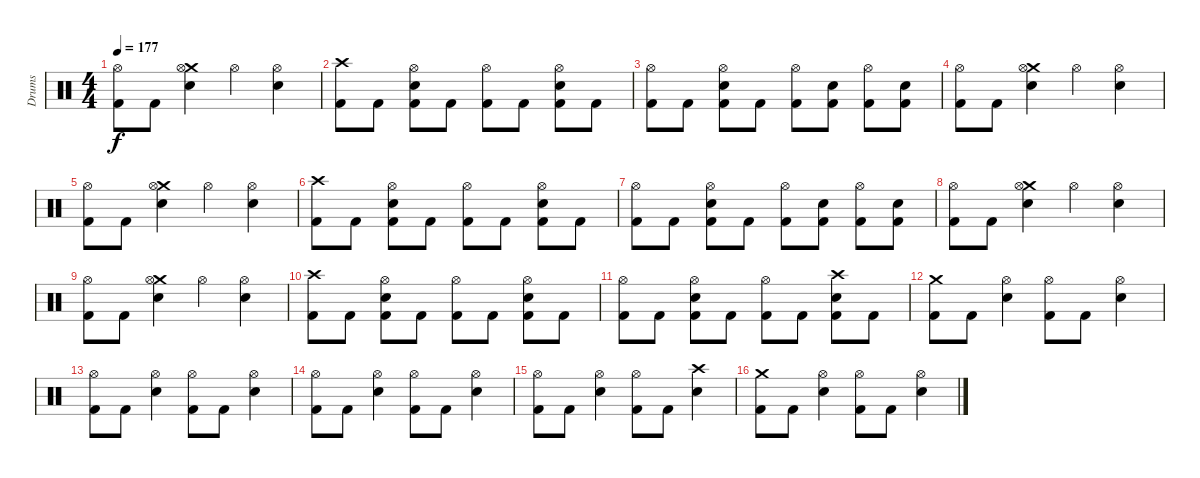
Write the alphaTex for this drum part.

\track ("Drums" "Drums") {instrument percussion}
\staff {score}
\articulation defaults
\ts (4 4)
\tempo 177
\clef neutral
\ks c
("Hi-Hat (open)" "Kick (hit) 2").8{dy f} "Kick (hit) 2".8 ("Crash medium (hit)" "Hi-Hat (open)" "Snare (hit) 2").4 "Hi-Hat (open)".4 ("Hi-Hat (open)" "Snare (hit) 2").4 |
("Crash high (hit)" "Kick (hit) 2").8 "Kick (hit) 2".8 ("Hi-Hat (open)" "Snare (hit) 2" "Kick (hit) 2").8 "Kick (hit) 2".8 ("Hi-Hat (open)" "Kick (hit) 2").8 "Kick (hit) 2".8 ("Hi-Hat (open)" "Snare (hit) 2" "Kick (hit) 2").8 "Kick (hit) 2".8 |
("Hi-Hat (open)" "Kick (hit) 2").8 "Kick (hit) 2".8 ("Hi-Hat (open)" "Snare (hit) 2" "Kick (hit) 2").8 "Kick (hit) 2".8 ("Hi-Hat (open)" "Kick (hit) 2").8 ("Snare (hit) 2" "Kick (hit) 2").8 ("Hi-Hat (open)" "Kick (hit) 2").8 ("Snare (hit) 2" "Kick (hit) 2").8 |
("Hi-Hat (open)" "Kick (hit) 2").8 "Kick (hit) 2".8 ("Crash medium (hit)" "Hi-Hat (open)" "Snare (hit) 2").4 "Hi-Hat (open)".4 ("Hi-Hat (open)" "Snare (hit) 2").4 |
("Hi-Hat (open)" "Kick (hit) 2").8 "Kick (hit) 2".8 ("Crash medium (hit)" "Hi-Hat (open)" "Snare (hit) 2").4 "Hi-Hat (open)".4 ("Hi-Hat (open)" "Snare (hit) 2").4 |
("Crash high (hit)" "Kick (hit) 2").8 "Kick (hit) 2".8 ("Hi-Hat (open)" "Snare (hit) 2" "Kick (hit) 2").8 "Kick (hit) 2".8 ("Hi-Hat (open)" "Kick (hit) 2").8 "Kick (hit) 2".8 ("Hi-Hat (open)" "Snare (hit) 2" "Kick (hit) 2").8 "Kick (hit) 2".8 |
("Hi-Hat (open)" "Kick (hit) 2").8 "Kick (hit) 2".8 ("Hi-Hat (open)" "Snare (hit) 2" "Kick (hit) 2").8 "Kick (hit) 2".8 ("Hi-Hat (open)" "Kick (hit) 2").8 ("Snare (hit) 2" "Kick (hit) 2").8 ("Hi-Hat (open)" "Kick (hit) 2").8 ("Snare (hit) 2" "Kick (hit) 2").8 |
("Hi-Hat (open)" "Kick (hit) 2").8 "Kick (hit) 2".8 ("Crash medium (hit)" "Hi-Hat (open)" "Snare (hit) 2").4 "Hi-Hat (open)".4 ("Hi-Hat (open)" "Snare (hit) 2").4 |
("Hi-Hat (open)" "Kick (hit) 2").8 "Kick (hit) 2".8 ("Crash medium (hit)" "Hi-Hat (open)" "Snare (hit) 2").4 "Hi-Hat (open)".4 ("Hi-Hat (open)" "Snare (hit) 2").4 |
("Crash high (hit)" "Kick (hit) 2").8 "Kick (hit) 2".8 ("Hi-Hat (open)" "Snare (hit) 2" "Kick (hit) 2").8 "Kick (hit) 2".8 ("Hi-Hat (open)" "Kick (hit) 2").8 "Kick (hit) 2".8 ("Hi-Hat (open)" "Snare (hit) 2" "Kick (hit) 2").8 "Kick (hit) 2".8 |
("Hi-Hat (open)" "Kick (hit) 2").8 "Kick (hit) 2".8 ("Hi-Hat (open)" "Snare (hit) 2" "Kick (hit) 2").8 "Kick (hit) 2".8 ("Hi-Hat (open)" "Kick (hit) 2").8 "Kick (hit) 2".8 ("Crash high (hit)" "Snare (hit) 2" "Kick (hit) 2").8 "Kick (hit) 2".8 |
("Crash medium (hit)" "Kick (hit) 2").8 "Kick (hit) 2".8 ("Hi-Hat (open)" "Snare (hit) 2").4 ("Hi-Hat (open)" "Kick (hit) 2").8 "Kick (hit) 2".8 ("Hi-Hat (open)" "Snare (hit) 2").4 |
("Hi-Hat (open)" "Kick (hit) 2").8 "Kick (hit) 2".8 ("Hi-Hat (open)" "Snare (hit) 2").4 ("Hi-Hat (open)" "Kick (hit) 2").8 "Kick (hit) 2".8 ("Hi-Hat (open)" "Snare (hit) 2").4 |
("Hi-Hat (open)" "Kick (hit) 2").8 "Kick (hit) 2".8 ("Hi-Hat (open)" "Snare (hit) 2").4 ("Hi-Hat (open)" "Kick (hit) 2").8 "Kick (hit) 2".8 ("Hi-Hat (open)" "Snare (hit) 2").4 |
("Hi-Hat (open)" "Kick (hit) 2").8 "Kick (hit) 2".8 ("Hi-Hat (open)" "Snare (hit) 2").4 ("Hi-Hat (open)" "Kick (hit) 2").8 "Kick (hit) 2".8 ("Crash high (hit)" "Snare (hit) 2").4 |
("Crash medium (hit)" "Kick (hit) 2").8 "Kick (hit) 2".8 ("Hi-Hat (open)" "Snare (hit) 2").4 ("Hi-Hat (open)" "Kick (hit) 2").8 "Kick (hit) 2".8 ("Hi-Hat (open)" "Snare (hit) 2").4
